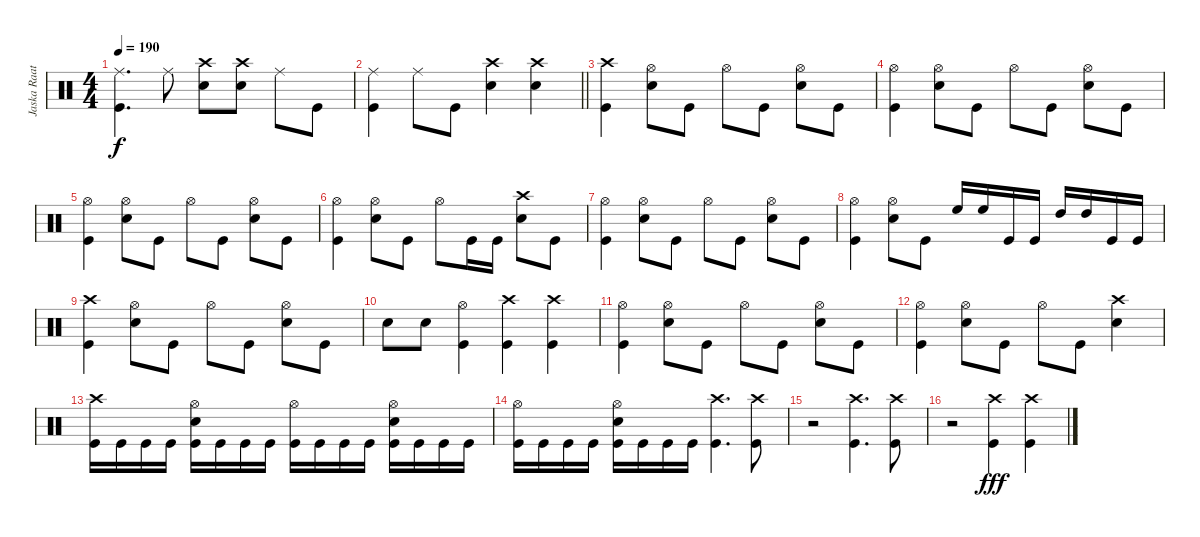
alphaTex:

\track ("Jaska Raatikainen" "Jaska Raat") {instrument percussion}
\staff {score}
\articulation defaults
\ts (4 4)
\tempo 190
\clef neutral
\ks c
("Ride (middle)" "Kick (hit)").4{d dy f} "Ride (middle)".8 ("Crash high (hit)" "Snare (hit) 2").8 ("Crash high (hit)" "Snare (hit) 2").8 "Ride (middle)".8 "Kick (hit)".8 |
\barLineRight lightlight
("Ride (middle)" "Kick (hit)").4 "Ride (middle)".8 "Kick (hit)".8 ("Crash high (hit)" "Snare (hit) 2").4 ("Crash high (hit)" "Snare (hit) 2").4 |
("Crash high (hit)" "Kick (hit)").4 ("Hi-Hat (open)" "Snare (hit) 2").8 "Kick (hit)".8 "Hi-Hat (open)".8 "Kick (hit)".8 ("Hi-Hat (open)" "Snare (hit) 2").8 "Kick (hit)".8 |
("Hi-Hat (open)" "Kick (hit)").4 ("Hi-Hat (open)" "Snare (hit) 2").8 "Kick (hit)".8 "Hi-Hat (open)".8 "Kick (hit)".8 ("Hi-Hat (open)" "Snare (hit) 2").8 "Kick (hit)".8 |
("Hi-Hat (open)" "Kick (hit)").4 ("Hi-Hat (open)" "Snare (hit) 2").8 "Kick (hit)".8 "Hi-Hat (open)".8 "Kick (hit)".8 ("Hi-Hat (open)" "Snare (hit) 2").8 "Kick (hit)".8 |
("Hi-Hat (open)" "Kick (hit)").4 ("Hi-Hat (open)" "Snare (hit) 2").8 "Kick (hit)".8 "Hi-Hat (open)".8 "Kick (hit)".16 "Kick (hit)".16 ("Crash high (hit)" "Snare (hit) 2").8 "Kick (hit)".8 |
("Hi-Hat (open)" "Kick (hit)").4 ("Hi-Hat (open)" "Snare (hit) 2").8 "Kick (hit)".8 "Hi-Hat (open)".8 "Kick (hit)".8 ("Hi-Hat (open)" "Snare (hit) 2").8 "Kick (hit)".8 |
("Hi-Hat (open)" "Kick (hit)").4 ("Hi-Hat (open)" "Snare (hit) 2").8 "Kick (hit)".8 "High Floor Tom (hit)".16 "High Floor Tom (hit)".16 "Kick (hit)".16 "Kick (hit)".16 "High Tom (hit)".16 "High Tom (hit)".16 "Kick (hit)".16 "Kick (hit)".16 |
("Crash high (hit)" "Kick (hit)").4 ("Hi-Hat (open)" "Snare (hit) 2").8 "Kick (hit)".8 "Hi-Hat (open)".8 "Kick (hit)".8 ("Hi-Hat (open)" "Snare (hit) 2").8 "Kick (hit)".8 |
"Snare (hit) 2".8 "Snare (hit) 2".8 ("Hi-Hat (open)" "Kick (hit)").4 ("Crash high (hit)" "Kick (hit)").4 ("Crash high (hit)" "Kick (hit)").4 |
("Hi-Hat (open)" "Kick (hit)").4 ("Hi-Hat (open)" "Snare (hit) 2").8 "Kick (hit)".8 "Hi-Hat (open)".8 "Kick (hit)".8 ("Hi-Hat (open)" "Snare (hit) 2").8 "Kick (hit)".8 |
("Hi-Hat (open)" "Kick (hit)").4 ("Hi-Hat (open)" "Snare (hit) 2").8 "Kick (hit)".8 "Hi-Hat (open)".8 "Kick (hit)".8 ("Crash high (hit)" "Snare (hit) 2").4 |
("Crash high (hit)" "Kick (hit)").16 "Kick (hit)".16 "Kick (hit)".16 "Kick (hit)".16 ("Hi-Hat (open)" "Snare (hit) 2" "Kick (hit)").16 "Kick (hit)".16 "Kick (hit)".16 "Kick (hit)".16 ("Hi-Hat (open)" "Kick (hit)").16 "Kick (hit)".16 "Kick (hit)".16 "Kick (hit)".16 ("Hi-Hat (open)" "Snare (hit) 2" "Kick (hit)").16 "Kick (hit)".16 "Kick (hit)".16 "Kick (hit)".16 |
("Hi-Hat (open)" "Kick (hit)").16 "Kick (hit)".16 "Kick (hit)".16 "Kick (hit)".16 ("Hi-Hat (open)" "Snare (hit) 2" "Kick (hit)").16 "Kick (hit)".16 "Kick (hit)".16 "Kick (hit)".16 ("Crash high (hit)" "Kick (hit)").4{d} ("Crash high (hit)" "Kick (hit)").8 |
r.2 ("Crash high (hit)" "Kick (hit)").4{d} ("Crash high (hit)" "Kick (hit)").8 |
r.2 ("Crash high (hit)" "Kick (hit)").4{dy fff} ("Crash high (hit)" "Kick (hit)").4
